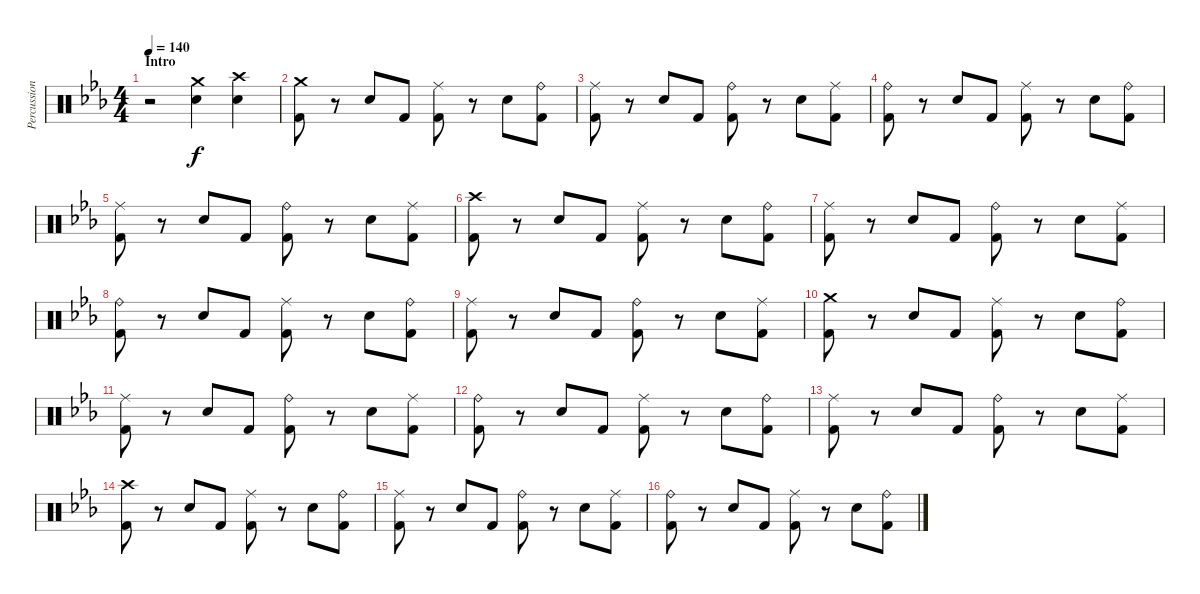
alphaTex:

\track ("Percussions" "Percussion") {instrument percussion}
\staff {score}
\articulation defaults
\ts (4 4)
\section ("" "Intro")
\tempo 140
\clef neutral
\ks eb
r.2{dy f} ("Crash medium (hit)" "Snare (hit) 2").4 ("Crash high (hit)" "Snare (hit) 2").4 |
("Crash medium (hit)" "Kick (hit) 2").8 r.8 "Snare (hit) 2".8 "Kick (hit) 2".8 ("Ride (middle)" "Kick (hit) 2").8 r.8 "Snare (hit) 2".8 ("Ride (bell)" "Kick (hit) 2").8 |
("Ride (middle)" "Kick (hit) 2").8 r.8 "Snare (hit) 2".8 "Kick (hit) 2".8 ("Ride (bell)" "Kick (hit) 2").8 r.8 "Snare (hit) 2".8 ("Ride (middle)" "Kick (hit) 2").8 |
("Ride (bell)" "Kick (hit) 2").8 r.8 "Snare (hit) 2".8 "Kick (hit) 2".8 ("Ride (middle)" "Kick (hit) 2").8 r.8 "Snare (hit) 2".8 ("Ride (bell)" "Kick (hit) 2").8 |
("Ride (middle)" "Kick (hit) 2").8 r.8 "Snare (hit) 2".8 "Kick (hit) 2".8 ("Ride (bell)" "Kick (hit) 2").8 r.8 "Snare (hit) 2".8 ("Ride (middle)" "Kick (hit) 2").8 |
("Crash high (hit)" "Kick (hit) 2").8 r.8 "Snare (hit) 2".8 "Kick (hit) 2".8 ("Ride (middle)" "Kick (hit) 2").8 r.8 "Snare (hit) 2".8 ("Ride (bell)" "Kick (hit) 2").8 |
("Ride (middle)" "Kick (hit) 2").8 r.8 "Snare (hit) 2".8 "Kick (hit) 2".8 ("Ride (bell)" "Kick (hit) 2").8 r.8 "Snare (hit) 2".8 ("Ride (middle)" "Kick (hit) 2").8 |
("Ride (bell)" "Kick (hit) 2").8 r.8 "Snare (hit) 2".8 "Kick (hit) 2".8 ("Ride (middle)" "Kick (hit) 2").8 r.8 "Snare (hit) 2".8 ("Ride (bell)" "Kick (hit) 2").8 |
("Ride (middle)" "Kick (hit) 2").8 r.8 "Snare (hit) 2".8 "Kick (hit) 2".8 ("Ride (bell)" "Kick (hit) 2").8 r.8 "Snare (hit) 2".8 ("Ride (middle)" "Kick (hit) 2").8 |
("Crash medium (hit)" "Kick (hit) 2").8 r.8 "Snare (hit) 2".8 "Kick (hit) 2".8 ("Ride (middle)" "Kick (hit) 2").8 r.8 "Snare (hit) 2".8 ("Ride (bell)" "Kick (hit) 2").8 |
("Ride (middle)" "Kick (hit) 2").8 r.8 "Snare (hit) 2".8 "Kick (hit) 2".8 ("Ride (bell)" "Kick (hit) 2").8 r.8 "Snare (hit) 2".8 ("Ride (middle)" "Kick (hit) 2").8 |
("Ride (bell)" "Kick (hit) 2").8 r.8 "Snare (hit) 2".8 "Kick (hit) 2".8 ("Ride (middle)" "Kick (hit) 2").8 r.8 "Snare (hit) 2".8 ("Ride (bell)" "Kick (hit) 2").8 |
("Ride (middle)" "Kick (hit) 2").8 r.8 "Snare (hit) 2".8 "Kick (hit) 2".8 ("Ride (bell)" "Kick (hit) 2").8 r.8 "Snare (hit) 2".8 ("Ride (middle)" "Kick (hit) 2").8 |
("Crash high (hit)" "Kick (hit) 2").8 r.8 "Snare (hit) 2".8 "Kick (hit) 2".8 ("Ride (middle)" "Kick (hit) 2").8 r.8 "Snare (hit) 2".8 ("Ride (bell)" "Kick (hit) 2").8 |
("Ride (middle)" "Kick (hit) 2").8 r.8 "Snare (hit) 2".8 "Kick (hit) 2".8 ("Ride (bell)" "Kick (hit) 2").8 r.8 "Snare (hit) 2".8 ("Ride (middle)" "Kick (hit) 2").8 |
("Ride (bell)" "Kick (hit) 2").8 r.8 "Snare (hit) 2".8 "Kick (hit) 2".8 ("Ride (middle)" "Kick (hit) 2").8 r.8 "Snare (hit) 2".8 ("Ride (bell)" "Kick (hit) 2").8
